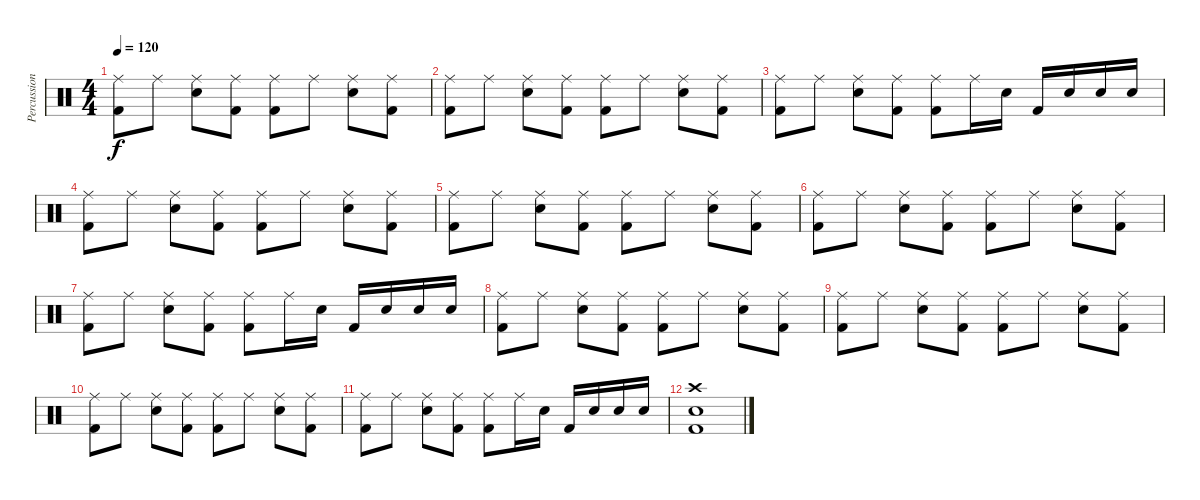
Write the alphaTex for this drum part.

\track ("Percussion" "Percussion") {instrument percussion}
\staff {score}
\articulation defaults
\ts (4 4)
\tempo 120
\clef neutral
\ks c
("Kick (hit) 2" "Ride (middle)").8{dy f} "Ride (middle)".8 ("Electric Snare (hit)" "Ride (middle)").8 ("Kick (hit) 2" "Ride (middle)").8 ("Kick (hit) 2" "Ride (middle)").8 "Ride (middle)".8 ("Electric Snare (hit)" "Ride (middle)").8 ("Kick (hit) 2" "Ride (middle)").8 |
("Kick (hit) 2" "Ride (middle)").8 "Ride (middle)".8 ("Electric Snare (hit)" "Ride (middle)").8 ("Kick (hit) 2" "Ride (middle)").8 ("Kick (hit) 2" "Ride (middle)").8 "Ride (middle)".8 ("Electric Snare (hit)" "Ride (middle)").8 ("Kick (hit) 2" "Ride (middle)").8 |
("Kick (hit) 2" "Ride (middle)").8 "Ride (middle)".8 ("Electric Snare (hit)" "Ride (middle)").8 ("Kick (hit) 2" "Ride (middle)").8 ("Kick (hit) 2" "Ride (middle)").8 "Ride (middle)".16 "Electric Snare (hit)".16 "Kick (hit) 2".16 "Electric Snare (hit)".16 "Electric Snare (hit)".16 "Electric Snare (hit)".16 |
("Kick (hit) 2" "Ride (middle)").8 "Ride (middle)".8 ("Electric Snare (hit)" "Ride (middle)").8 ("Kick (hit) 2" "Ride (middle)").8 ("Kick (hit) 2" "Ride (middle)").8 "Ride (middle)".8 ("Electric Snare (hit)" "Ride (middle)").8 ("Kick (hit) 2" "Ride (middle)").8 |
("Kick (hit) 2" "Ride (middle)").8 "Ride (middle)".8 ("Electric Snare (hit)" "Ride (middle)").8 ("Kick (hit) 2" "Ride (middle)").8 ("Kick (hit) 2" "Ride (middle)").8 "Ride (middle)".8 ("Electric Snare (hit)" "Ride (middle)").8 ("Kick (hit) 2" "Ride (middle)").8 |
("Kick (hit) 2" "Ride (middle)").8 "Ride (middle)".8 ("Electric Snare (hit)" "Ride (middle)").8 ("Kick (hit) 2" "Ride (middle)").8 ("Kick (hit) 2" "Ride (middle)").8 "Ride (middle)".8 ("Electric Snare (hit)" "Ride (middle)").8 ("Kick (hit) 2" "Ride (middle)").8 |
("Kick (hit) 2" "Ride (middle)").8 "Ride (middle)".8 ("Electric Snare (hit)" "Ride (middle)").8 ("Kick (hit) 2" "Ride (middle)").8 ("Kick (hit) 2" "Ride (middle)").8 "Ride (middle)".16 "Electric Snare (hit)".16 "Kick (hit) 2".16 "Electric Snare (hit)".16 "Electric Snare (hit)".16 "Electric Snare (hit)".16 |
("Kick (hit) 2" "Ride (middle)").8 "Ride (middle)".8 ("Electric Snare (hit)" "Ride (middle)").8 ("Kick (hit) 2" "Ride (middle)").8 ("Kick (hit) 2" "Ride (middle)").8 "Ride (middle)".8 ("Electric Snare (hit)" "Ride (middle)").8 ("Kick (hit) 2" "Ride (middle)").8 |
("Kick (hit) 2" "Ride (middle)").8 "Ride (middle)".8 ("Electric Snare (hit)" "Ride (middle)").8 ("Kick (hit) 2" "Ride (middle)").8 ("Kick (hit) 2" "Ride (middle)").8 "Ride (middle)".8 ("Electric Snare (hit)" "Ride (middle)").8 ("Kick (hit) 2" "Ride (middle)").8 |
("Kick (hit) 2" "Ride (middle)").8 "Ride (middle)".8 ("Electric Snare (hit)" "Ride (middle)").8 ("Kick (hit) 2" "Ride (middle)").8 ("Kick (hit) 2" "Ride (middle)").8 "Ride (middle)".8 ("Electric Snare (hit)" "Ride (middle)").8 ("Kick (hit) 2" "Ride (middle)").8 |
("Kick (hit) 2" "Ride (middle)").8 "Ride (middle)".8 ("Electric Snare (hit)" "Ride (middle)").8 ("Kick (hit) 2" "Ride (middle)").8 ("Kick (hit) 2" "Ride (middle)").8 "Ride (middle)".16 "Electric Snare (hit)".16 "Kick (hit) 2".16 "Electric Snare (hit)".16 "Electric Snare (hit)".16 "Electric Snare (hit)".16 |
("Kick (hit) 2" "Snare (hit) 2" "Crash high (hit)").1
